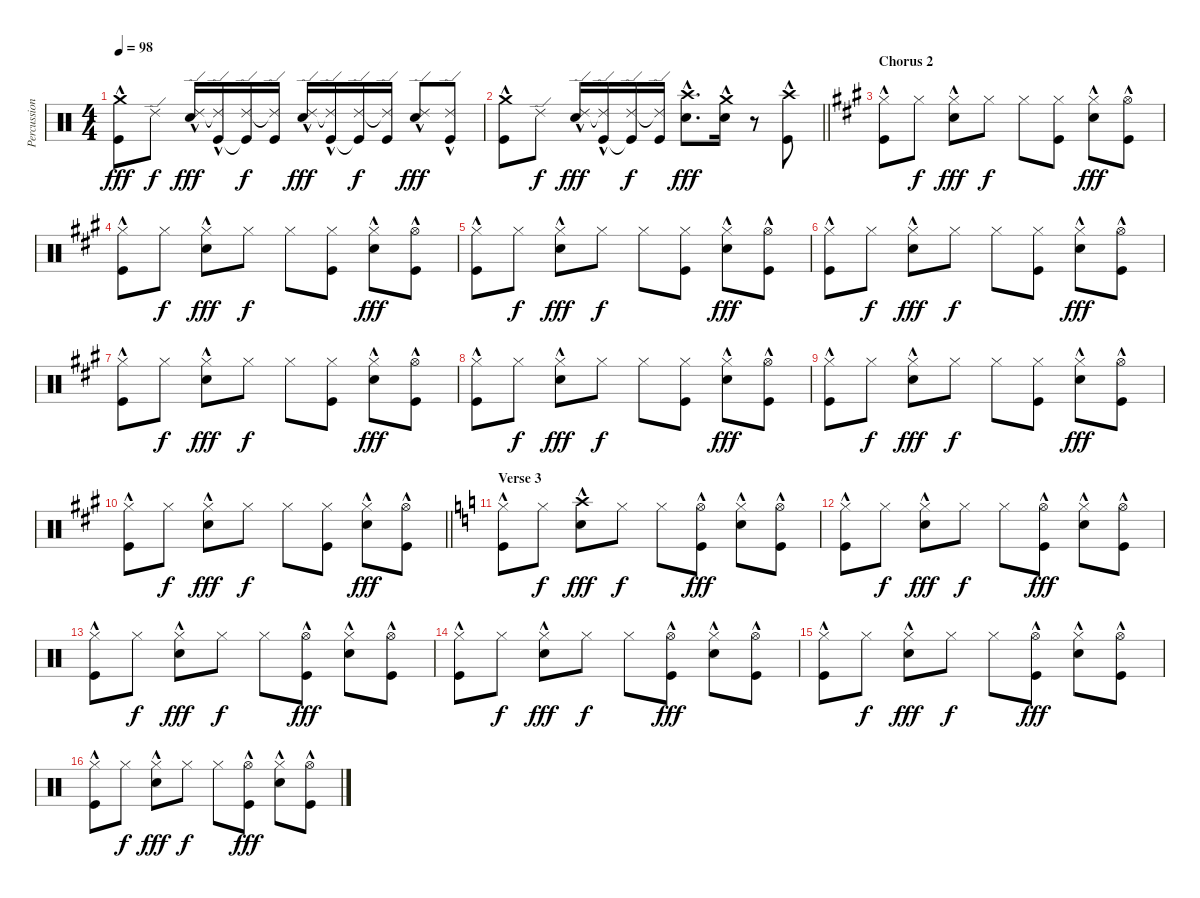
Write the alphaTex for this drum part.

\track ("Percussion -- Joey Kramer" "Percussion") {instrument percussion}
\staff {score}
\articulation defaults
\ts (4 4)
\tempo 98
\clef neutral
\ks c
("Crash medium (hit)"{hac} "Kick (hit)"{hac}).8{dy fff} "Ride (edge) 2".8{dy f} ("Ride (edge) 2" "Snare (hit) 2"{hac}).16{dy fff} ("Ride (edge) 2"{t} "Kick (hit)"{hac}).16 ("Ride (edge) 2" "Kick (hit)"{t}).16{dy f} ("Ride (edge) 2"{t} "Kick (hit)").16 ("Ride (edge) 2" "Snare (hit) 2"{hac}).16{dy fff} ("Ride (edge) 2"{t} "Kick (hit)"{hac}).16 ("Ride (edge) 2" "Kick (hit)"{t}).16{dy f} ("Ride (edge) 2"{t} "Kick (hit)").16 ("Ride (edge) 2" "Snare (hit) 2"{hac}).8{dy fff} ("Ride (edge) 2" "Kick (hit)"{hac}).8 |
\barLineRight lightlight
("Crash medium (hit)"{hac} "Kick (hit)"{hac}).8 "Ride (edge) 2".8{dy f} ("Ride (edge) 2" "Snare (hit) 2"{hac}).16{dy fff} ("Ride (edge) 2"{t} "Kick (hit)"{hac}).16 ("Ride (edge) 2" "Kick (hit)"{t}).16{dy f} ("Ride (edge) 2"{t} "Kick (hit)").16 ("Crash high (hit)"{hac} "Snare (hit) 2"{hac}).8{d dy fff} ("Crash medium (hit)"{hac} "Snare (hit) 2"{hac}).16 r.8 ("Crash high (hit)"{hac} "Kick (hit)"{hac}).8 |
\section ("" "Chorus 2")
\ks a
("Hi-Hat (closed)" "Kick (hit)"{hac}).8 "Hi-Hat (closed)".8{dy f} ("Hi-Hat (closed)" "Snare (hit) 2"{hac}).8{dy fff} "Hi-Hat (closed)".8{dy f} "Hi-Hat (closed)".8 ("Hi-Hat (closed)" "Kick (hit)").8 ("Hi-Hat (closed)" "Snare (hit) 2"{hac}).8{dy fff} ("Hi-Hat (open)"{hac} "Kick (hit)"{hac}).8 |
("Hi-Hat (closed)" "Kick (hit)"{hac}).8 "Hi-Hat (closed)".8{dy f} ("Hi-Hat (closed)" "Snare (hit) 2"{hac}).8{dy fff} "Hi-Hat (closed)".8{dy f} "Hi-Hat (closed)".8 ("Hi-Hat (closed)" "Kick (hit)").8 ("Hi-Hat (closed)" "Snare (hit) 2"{hac}).8{dy fff} ("Hi-Hat (open)"{hac} "Kick (hit)"{hac}).8 |
("Hi-Hat (closed)" "Kick (hit)"{hac}).8 "Hi-Hat (closed)".8{dy f} ("Hi-Hat (closed)" "Snare (hit) 2"{hac}).8{dy fff} "Hi-Hat (closed)".8{dy f} "Hi-Hat (closed)".8 ("Hi-Hat (closed)" "Kick (hit)").8 ("Hi-Hat (closed)" "Snare (hit) 2"{hac}).8{dy fff} ("Hi-Hat (open)"{hac} "Kick (hit)"{hac}).8 |
("Hi-Hat (closed)" "Kick (hit)"{hac}).8 "Hi-Hat (closed)".8{dy f} ("Hi-Hat (closed)" "Snare (hit) 2"{hac}).8{dy fff} "Hi-Hat (closed)".8{dy f} "Hi-Hat (closed)".8 ("Hi-Hat (closed)" "Kick (hit)").8 ("Hi-Hat (closed)" "Snare (hit) 2"{hac}).8{dy fff} ("Hi-Hat (open)"{hac} "Kick (hit)"{hac}).8 |
("Hi-Hat (closed)" "Kick (hit)"{hac}).8 "Hi-Hat (closed)".8{dy f} ("Hi-Hat (closed)" "Snare (hit) 2"{hac}).8{dy fff} "Hi-Hat (closed)".8{dy f} "Hi-Hat (closed)".8 ("Hi-Hat (closed)" "Kick (hit)").8 ("Hi-Hat (closed)" "Snare (hit) 2"{hac}).8{dy fff} ("Hi-Hat (open)"{hac} "Kick (hit)"{hac}).8 |
("Hi-Hat (closed)" "Kick (hit)"{hac}).8 "Hi-Hat (closed)".8{dy f} ("Hi-Hat (closed)" "Snare (hit) 2"{hac}).8{dy fff} "Hi-Hat (closed)".8{dy f} "Hi-Hat (closed)".8 ("Hi-Hat (closed)" "Kick (hit)").8 ("Hi-Hat (closed)" "Snare (hit) 2"{hac}).8{dy fff} ("Hi-Hat (open)"{hac} "Kick (hit)"{hac}).8 |
("Hi-Hat (closed)" "Kick (hit)"{hac}).8 "Hi-Hat (closed)".8{dy f} ("Hi-Hat (closed)" "Snare (hit) 2"{hac}).8{dy fff} "Hi-Hat (closed)".8{dy f} "Hi-Hat (closed)".8 ("Hi-Hat (closed)" "Kick (hit)").8 ("Hi-Hat (closed)" "Snare (hit) 2"{hac}).8{dy fff} ("Hi-Hat (open)"{hac} "Kick (hit)"{hac}).8 |
\barLineRight lightlight
("Hi-Hat (closed)" "Kick (hit)"{hac}).8 "Hi-Hat (closed)".8{dy f} ("Hi-Hat (closed)" "Snare (hit) 2"{hac}).8{dy fff} "Hi-Hat (closed)".8{dy f} "Hi-Hat (closed)".8 ("Hi-Hat (closed)" "Kick (hit)").8 ("Hi-Hat (closed)" "Snare (hit) 2"{hac}).8{dy fff} ("Hi-Hat (open)"{hac} "Kick (hit)"{hac}).8 |
\section ("" "Verse 3")
\ks c
("Hi-Hat (closed)" "Kick (hit)"{hac}).8 "Hi-Hat (closed)".8{dy f} ("Crash high (hit)"{hac} "Snare (hit) 2"{hac}).8{dy fff} "Hi-Hat (closed)".8{dy f} "Hi-Hat (closed)".8 ("Hi-Hat (open)"{hac} "Kick (hit)").8{dy fff} ("Hi-Hat (closed)" "Snare (hit) 2"{hac}).8 ("Hi-Hat (open)"{hac} "Kick (hit)"{hac}).8 |
("Hi-Hat (closed)" "Kick (hit)"{hac}).8 "Hi-Hat (closed)".8{dy f} ("Hi-Hat (closed)" "Snare (hit) 2"{hac}).8{dy fff} "Hi-Hat (closed)".8{dy f} "Hi-Hat (closed)".8 ("Hi-Hat (open)"{hac} "Kick (hit)").8{dy fff} ("Hi-Hat (closed)" "Snare (hit) 2"{hac}).8 ("Hi-Hat (open)"{hac} "Kick (hit)"{hac}).8 |
("Hi-Hat (closed)" "Kick (hit)"{hac}).8 "Hi-Hat (closed)".8{dy f} ("Hi-Hat (closed)" "Snare (hit) 2"{hac}).8{dy fff} "Hi-Hat (closed)".8{dy f} "Hi-Hat (closed)".8 ("Hi-Hat (open)"{hac} "Kick (hit)").8{dy fff} ("Hi-Hat (closed)" "Snare (hit) 2"{hac}).8 ("Hi-Hat (open)"{hac} "Kick (hit)"{hac}).8 |
("Hi-Hat (closed)" "Kick (hit)"{hac}).8 "Hi-Hat (closed)".8{dy f} ("Hi-Hat (closed)" "Snare (hit) 2"{hac}).8{dy fff} "Hi-Hat (closed)".8{dy f} "Hi-Hat (closed)".8 ("Hi-Hat (open)"{hac} "Kick (hit)").8{dy fff} ("Hi-Hat (closed)" "Snare (hit) 2"{hac}).8 ("Hi-Hat (open)"{hac} "Kick (hit)"{hac}).8 |
("Hi-Hat (closed)" "Kick (hit)"{hac}).8 "Hi-Hat (closed)".8{dy f} ("Hi-Hat (closed)" "Snare (hit) 2"{hac}).8{dy fff} "Hi-Hat (closed)".8{dy f} "Hi-Hat (closed)".8 ("Hi-Hat (open)"{hac} "Kick (hit)").8{dy fff} ("Hi-Hat (closed)" "Snare (hit) 2"{hac}).8 ("Hi-Hat (open)"{hac} "Kick (hit)"{hac}).8 |
("Hi-Hat (closed)" "Kick (hit)"{hac}).8 "Hi-Hat (closed)".8{dy f} ("Hi-Hat (closed)" "Snare (hit) 2"{hac}).8{dy fff} "Hi-Hat (closed)".8{dy f} "Hi-Hat (closed)".8 ("Hi-Hat (open)"{hac} "Kick (hit)").8{dy fff} ("Hi-Hat (closed)" "Snare (hit) 2"{hac}).8 ("Hi-Hat (open)"{hac} "Kick (hit)"{hac}).8
